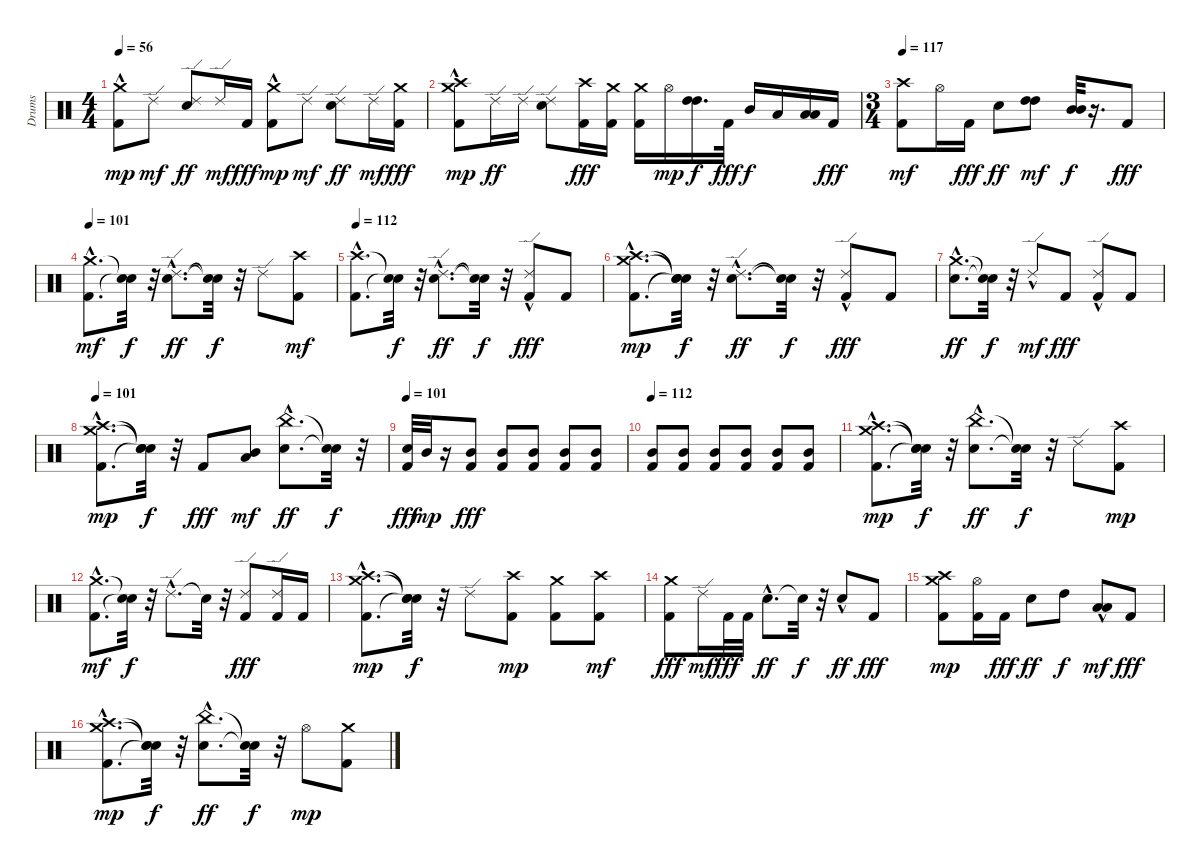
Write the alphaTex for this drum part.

\track ("Drums" "Drums") {instrument percussion}
\staff {score}
\articulation defaults
\ts (4 4)
\tempo 56
\clef neutral
\ks c
("Kick (hit) 2"{hac} "Crash medium (hit)").8{dy mp} "Ride (edge) 2".8{dy mf} ("Ride (edge) 2" "Snare (hit) 2").8{dy ff} "Ride (edge) 2".16{dy mf} "Kick (hit) 2".16{dy fff} ("Kick (hit) 2"{hac} "Crash medium (hit)").8{dy mp} "Ride (edge) 2".8{dy mf} ("Ride (edge) 2" "Snare (hit) 2").8{dy ff} "Ride (edge) 2".16{dy mf} ("Crash medium (hit)" "Kick (hit) 2").16{dy fff} |
("Kick (hit) 2"{hac} "Crash high (hit)" "Crash medium (hit)"{hac}).8{dy mp} "Ride (edge) 2".16{dy ff} "Ride (edge) 2".16 ("Ride (edge) 2" "Snare (hit) 2").8 ("Crash high (hit)" "Kick (hit) 2").16{dy fff} ("Crash medium (hit)" "Kick (hit) 2").16 ("Crash medium (hit)" "Kick (hit) 2").16 "Hi-Hat (open)".16{dy mp} ("High Tom (hit)" "High Tom (hit)").16{d dy f} "Kick (hit) 2".32{dy fff} "Mid Tom (hit)".16{dy f} "Low Tom (hit)".16 ("Low Tom (hit)" "Low Tom (hit)").16 "Kick (hit) 2".16{dy fff} |
\ts (3 4)
\tempo 117
("Kick (hit) 2" "Crash high (hit)").8{dy mf} "Hi-Hat (open)".16 "Kick (hit) 2".16{dy fff} "Snare (hit) 2".8{dy ff} ("High Tom (hit)" "High Tom (hit)").8{dy mf} ("Mid Tom (hit)" "Mid Tom (hit)").32{dy f} r.16{d} "Kick (hit) 2".8{dy fff} |
\tempo 101
("Kick (hit) 2"{hac} "Crash medium (hit)"{hac}).8{d dy mf} ("Snare (hit)"{t} "Snare (hit)"{t}).32{dy f} r.32 ("Ride (edge) 2"{hac} "Snare (hit) 2"{hac}).8{d dy ff} ("Snare (hit)"{t} "Snare (hit)"{t}).32{dy f} r.32 "Ride (edge) 2".8 ("Kick (hit) 2" "Crash high (hit)").8{dy mf} |
\tempo 112
("Kick (hit) 2"{hac} "Crash high (hit)"{hac}).8{d} ("Snare (hit)"{t} "Snare (hit)"{t}).32{dy f} r.32 ("Ride (edge) 2"{hac} "Snare (hit) 2"{hac}).8{d dy ff} ("Snare (hit)"{t} "Snare (hit)"{t}).32{dy f} r.32 ("Ride (edge) 2"{hac} "Kick (hit) 2").8{dy fff} "Kick (hit) 2".8 |
("Kick (hit) 2"{hac} "Crash high (hit)"{hac} "Crash medium (hit)"{hac}).8{d dy mp} ("Snare (hit)"{t} "Snare (hit)"{t} "Snare (hit)"{t}).32{dy f} r.32 ("Ride (edge) 2"{hac} "Snare (hit) 2"{hac}).8{d dy ff} ("Snare (hit)"{t} "Snare (hit)"{t}).32{dy f} r.32 ("Ride (edge) 2"{hac} "Kick (hit) 2").8{dy fff} "Kick (hit) 2".8 |
("Crash medium (hit)"{hac} "Snare (hit) 2"{hac}).8{d dy ff} ("Snare (hit)"{t} "Snare (hit)"{t}).32{dy f} r.32 "Ride (edge) 2"{hac}.8{dy mf} "Kick (hit) 2".8{dy fff} ("Ride (edge) 2"{hac} "Kick (hit) 2").8 "Kick (hit) 2".8 |
\tempo 101
("Kick (hit) 2"{hac} "Crash high (hit)"{hac} "Crash medium (hit)"{hac}).8{d dy mp} ("Snare (hit)"{t} "Snare (hit)"{t} "Snare (hit)"{t}).32{dy f} r.32 "Kick (hit) 2".8{dy fff} ("Low Tom (hit)" "Mid Tom (hit)").8{dy mf} ("China (hit)"{hac} "Snare (hit) 2"{hac}).8{d dy ff} ("Snare (hit)"{t} "Snare (hit)"{t}).32{dy f} r.32 |
\tempo 101
("Snare (hit) 2" "Kick (hit) 2").32{dy fff} "Mid Tom (hit)".32{dy mp} r.16 ("Mid Tom (hit)" "Kick (hit) 2").8{dy fff} ("Mid Tom (hit)" "Kick (hit) 2").8 ("Mid Tom (hit)" "Kick (hit) 2").8 ("Mid Tom (hit)" "Kick (hit) 2").8 ("Mid Tom (hit)" "Kick (hit) 2").8 |
\tempo 112
("Mid Tom (hit)" "Kick (hit) 2").8 ("Mid Tom (hit)" "Kick (hit) 2").8 ("Mid Tom (hit)" "Kick (hit) 2").8 ("Mid Tom (hit)" "Kick (hit) 2").8 ("Mid Tom (hit)" "Kick (hit) 2").8 ("Mid Tom (hit)" "Kick (hit) 2").8 |
("Kick (hit) 2"{hac} "Crash high (hit)"{hac} "Crash medium (hit)"{hac}).8{d dy mp} ("Snare (hit)"{t} "Snare (hit)"{t} "Snare (hit)"{t}).32{dy f} r.32 ("China (hit)"{hac} "Snare (hit) 2"{hac}).8{d dy ff} ("Snare (hit)"{t} "Snare (hit)"{t}).32{dy f} r.32 "Ride (edge) 2".8 ("Kick (hit) 2" "Crash high (hit)").8{dy mp} |
("Kick (hit) 2"{hac} "Crash medium (hit)"{hac}).8{d dy mf} ("Snare (hit)"{t} "Snare (hit)"{t}).32{dy f} r.32 "Ride (edge) 2"{hac}.8{d} "Snare (hit)"{t}.32 r.32 ("Kick (hit) 2" "Ride (edge) 2").8{dy fff} ("Ride (edge) 2" "Kick (hit) 2").16 "Kick (hit) 2".16 |
("Kick (hit) 2"{hac} "Crash high (hit)"{hac} "Crash medium (hit)"{hac}).8{d dy mp} ("Snare (hit)"{t} "Snare (hit)"{t} "Snare (hit)"{t}).32{dy f} r.32 "Ride (edge) 2".8 ("Kick (hit) 2" "Crash high (hit)").8{dy mp} ("Kick (hit) 2" "Crash medium (hit)").8 ("Kick (hit) 2" "Crash high (hit)").8{dy mf} |
("Crash medium (hit)" "Kick (hit) 2").8{dy fff} "Ride (edge) 2".16{dy mf} "Kick (hit) 2".32{dy fff} "Kick (hit) 2".32 "Snare (hit) 2"{hac}.8{d dy ff} "Snare (hit)"{t}.32{dy f} r.32 "Snare (hit) 2"{hac}.8{dy ff} "Kick (hit) 2".8{dy fff} |
("Kick (hit) 2" "Crash high (hit)" "Crash medium (hit)").8{dy mp} ("Kick (hit) 2" "Hi-Hat (open)").16 "Kick (hit) 2".16{dy fff} "Snare (hit) 2".8{dy ff} "High Tom (hit)".8{dy f} ("Low Tom (hit)" "Low Tom (hit)"{hac}).8{dy mf} "Kick (hit) 2".8{dy fff} |
("Kick (hit) 2"{hac} "Crash high (hit)"{hac} "Crash medium (hit)"{hac}).8{d dy mp} ("Snare (hit)"{t} "Snare (hit)"{t} "Snare (hit)"{t}).32{dy f} r.32 ("China (hit)"{hac} "Snare (hit) 2"{hac}).8{d dy ff} ("Snare (hit)"{t} "Snare (hit)"{t}).32{dy f} r.32 "Hi-Hat (open)".8{dy mp} ("Kick (hit) 2" "Crash medium (hit)").8
